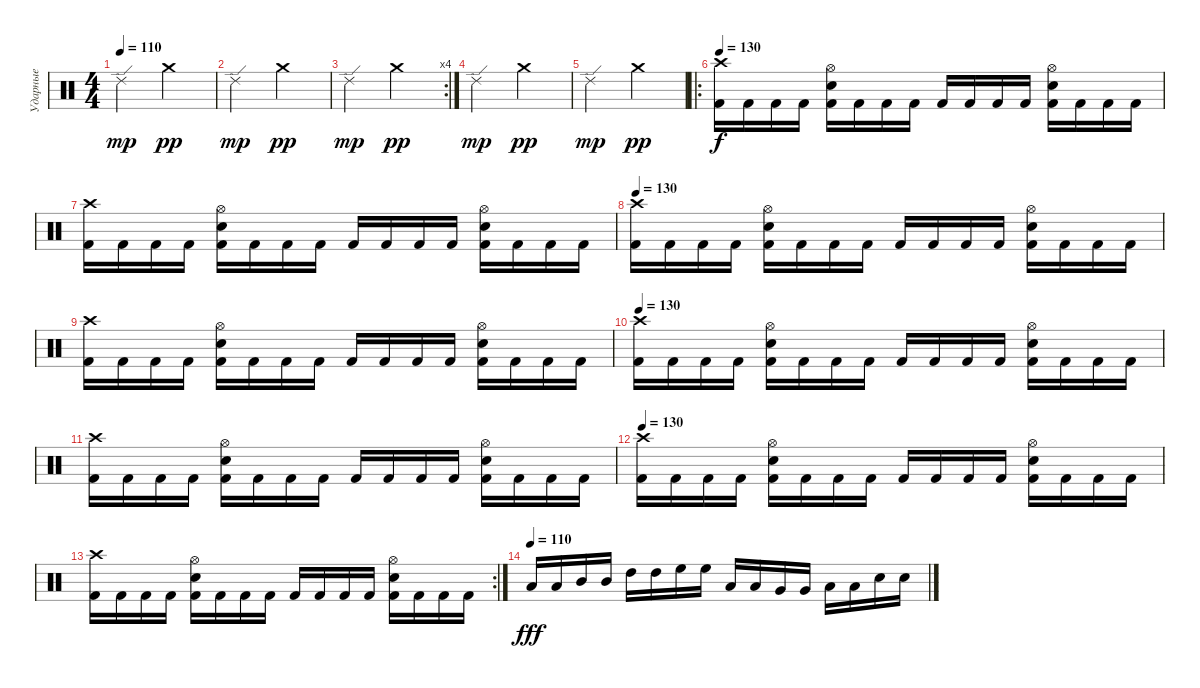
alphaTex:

\track ("Ударные" "Ударные") {instrument percussion}
\staff {score}
\articulation defaults
\ts (4 4)
\tempo 110
\clef neutral
\ks c "Ride (edge) 2".2{dy mp} "Crash medium (hit)".2{dy pp}
|
"Ride (edge) 2".2{dy mp} "Crash medium (hit)".2{dy pp} |
\rc 4 "Ride (edge) 2".2{dy mp} "Crash medium (hit)".2{dy pp}
|
"Ride (edge) 2".2{dy mp} "Crash medium (hit)".2{dy pp} |
"Ride (edge) 2".2{dy mp} "Crash medium (hit)".2{dy pp} |
\ro
\tempo 130
("Crash high (hit)" "Kick (hit) 2").16{dy f} "Kick (hit) 2".16 "Kick (hit) 2".16 "Kick (hit) 2".16 ("Snare (hit) 2" "Hi-Hat (open)" "Kick (hit) 2").16 "Kick (hit) 2".16 "Kick (hit) 2".16 "Kick (hit) 2".16 "Kick (hit) 2".16 "Kick (hit) 2".16 "Kick (hit) 2".16 "Kick (hit) 2".16 ("Snare (hit) 2" "Hi-Hat (open)" "Kick (hit) 2").16 "Kick (hit) 2".16 "Kick (hit) 2".16 "Kick (hit) 2".16 |
("Crash high (hit)" "Kick (hit) 2").16 "Kick (hit) 2".16 "Kick (hit) 2".16 "Kick (hit) 2".16 ("Snare (hit) 2" "Hi-Hat (open)" "Kick (hit) 2").16 "Kick (hit) 2".16 "Kick (hit) 2".16 "Kick (hit) 2".16 "Kick (hit) 2".16 "Kick (hit) 2".16 "Kick (hit) 2".16 "Kick (hit) 2".16 ("Snare (hit) 2" "Hi-Hat (open)" "Kick (hit) 2").16 "Kick (hit) 2".16 "Kick (hit) 2".16 "Kick (hit) 2".16 |
\tempo 130
("Crash high (hit)" "Kick (hit) 2").16 "Kick (hit) 2".16 "Kick (hit) 2".16 "Kick (hit) 2".16 ("Snare (hit) 2" "Hi-Hat (open)" "Kick (hit) 2").16 "Kick (hit) 2".16 "Kick (hit) 2".16 "Kick (hit) 2".16 "Kick (hit) 2".16 "Kick (hit) 2".16 "Kick (hit) 2".16 "Kick (hit) 2".16 ("Snare (hit) 2" "Hi-Hat (open)" "Kick (hit) 2").16 "Kick (hit) 2".16 "Kick (hit) 2".16 "Kick (hit) 2".16 |
("Crash high (hit)" "Kick (hit) 2").16 "Kick (hit) 2".16 "Kick (hit) 2".16 "Kick (hit) 2".16 ("Snare (hit) 2" "Hi-Hat (open)" "Kick (hit) 2").16 "Kick (hit) 2".16 "Kick (hit) 2".16 "Kick (hit) 2".16 "Kick (hit) 2".16 "Kick (hit) 2".16 "Kick (hit) 2".16 "Kick (hit) 2".16 ("Snare (hit) 2" "Hi-Hat (open)" "Kick (hit) 2").16 "Kick (hit) 2".16 "Kick (hit) 2".16 "Kick (hit) 2".16 |
\tempo 130
("Crash high (hit)" "Kick (hit) 2").16 "Kick (hit) 2".16 "Kick (hit) 2".16 "Kick (hit) 2".16 ("Snare (hit) 2" "Hi-Hat (open)" "Kick (hit) 2").16 "Kick (hit) 2".16 "Kick (hit) 2".16 "Kick (hit) 2".16 "Kick (hit) 2".16 "Kick (hit) 2".16 "Kick (hit) 2".16 "Kick (hit) 2".16 ("Snare (hit) 2" "Hi-Hat (open)" "Kick (hit) 2").16 "Kick (hit) 2".16 "Kick (hit) 2".16 "Kick (hit) 2".16 |
("Crash high (hit)" "Kick (hit) 2").16 "Kick (hit) 2".16 "Kick (hit) 2".16 "Kick (hit) 2".16 ("Snare (hit) 2" "Hi-Hat (open)" "Kick (hit) 2").16 "Kick (hit) 2".16 "Kick (hit) 2".16 "Kick (hit) 2".16 "Kick (hit) 2".16 "Kick (hit) 2".16 "Kick (hit) 2".16 "Kick (hit) 2".16 ("Snare (hit) 2" "Hi-Hat (open)" "Kick (hit) 2").16 "Kick (hit) 2".16 "Kick (hit) 2".16 "Kick (hit) 2".16 |
\tempo 130
("Crash high (hit)" "Kick (hit) 2").16 "Kick (hit) 2".16 "Kick (hit) 2".16 "Kick (hit) 2".16 ("Snare (hit) 2" "Hi-Hat (open)" "Kick (hit) 2").16 "Kick (hit) 2".16 "Kick (hit) 2".16 "Kick (hit) 2".16 "Kick (hit) 2".16 "Kick (hit) 2".16 "Kick (hit) 2".16 "Kick (hit) 2".16 ("Snare (hit) 2" "Hi-Hat (open)" "Kick (hit) 2").16 "Kick (hit) 2".16 "Kick (hit) 2".16 "Kick (hit) 2".16 |
\rc 2
("Crash high (hit)" "Kick (hit) 2").16 "Kick (hit) 2".16 "Kick (hit) 2".16 "Kick (hit) 2".16 ("Snare (hit) 2" "Hi-Hat (open)" "Kick (hit) 2").16 "Kick (hit) 2".16 "Kick (hit) 2".16 "Kick (hit) 2".16 "Kick (hit) 2".16 "Kick (hit) 2".16 "Kick (hit) 2".16 "Kick (hit) 2".16 ("Snare (hit) 2" "Hi-Hat (open)" "Kick (hit) 2").16 "Kick (hit) 2".16 "Kick (hit) 2".16 "Kick (hit) 2".16 |
\tempo (110)
"Low Tom (hit)".16{dy fff balance 0} "Low Tom (hit)".16{balance 1} "Mid Tom (hit)".16{balance 2} "Mid Tom (hit)".16{balance 3} "High Tom (hit)".16{balance 4} "High Tom (hit)".16{balance 5} "High Floor Tom (hit)".16{balance 6} "High Floor Tom (hit)".16{balance 8} "Low Floor Tom (hit)".16{balance 9} "Low Floor Tom (hit)".16{balance 10} "Very Low Tom (hit)".16{balance 11} "Very Low Tom (hit)".16{balance 12} "Low Tom (hit)".16{balance 13} "Low Tom (hit)".16{balance 14} "Snare (hit) 2".16{balance 15} "Snare (hit) 2".16{balance 16}
